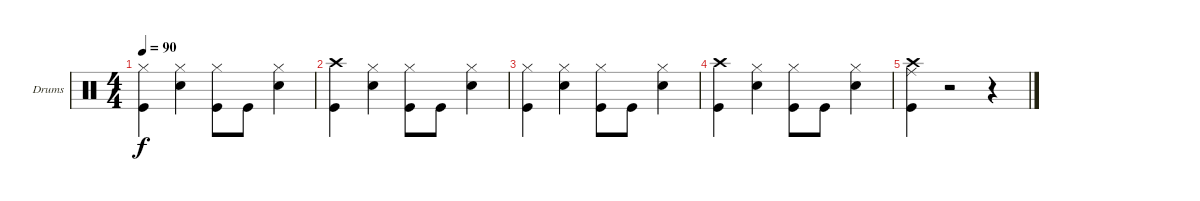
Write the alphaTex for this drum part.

\bracketExtendMode groupsimilarinstruments
\firstSystemTrackNameOrientation horizontal
\otherSystemsTrackNameOrientation horizontal
\track ("Drumkit" "Drums") {instrument percussion}
\staff {score}
\articulation defaults
\ts (4 4)
\tempo 90
\clef neutral
\ks c
("Hi-Hat (closed)" "Kick (hit)").4{dy f} ("Hi-Hat (closed)" "Snare (hit) 2").4 ("Hi-Hat (closed)" "Kick (hit)").8 "Kick (hit)".8 ("Hi-Hat (closed)" "Snare (hit) 2").4 |
("Crash high (hit)" "Kick (hit)").4 ("Hi-Hat (closed)" "Snare (hit) 2").4 ("Hi-Hat (closed)" "Kick (hit)").8 "Kick (hit)".8 ("Hi-Hat (closed)" "Snare (hit) 2").4 |
("Hi-Hat (closed)" "Kick (hit)").4 ("Hi-Hat (closed)" "Snare (hit) 2").4 ("Hi-Hat (closed)" "Kick (hit)").8 "Kick (hit)".8 ("Hi-Hat (closed)" "Snare (hit) 2").4 |
("Crash high (hit)" "Kick (hit)").4 ("Hi-Hat (closed)" "Snare (hit) 2").4 ("Hi-Hat (closed)" "Kick (hit)").8 "Kick (hit)".8 ("Hi-Hat (closed)" "Snare (hit) 2").4 |
("Crash high (hit)" "Ride (middle)" "Kick (hit)").4 r.2 r.4
